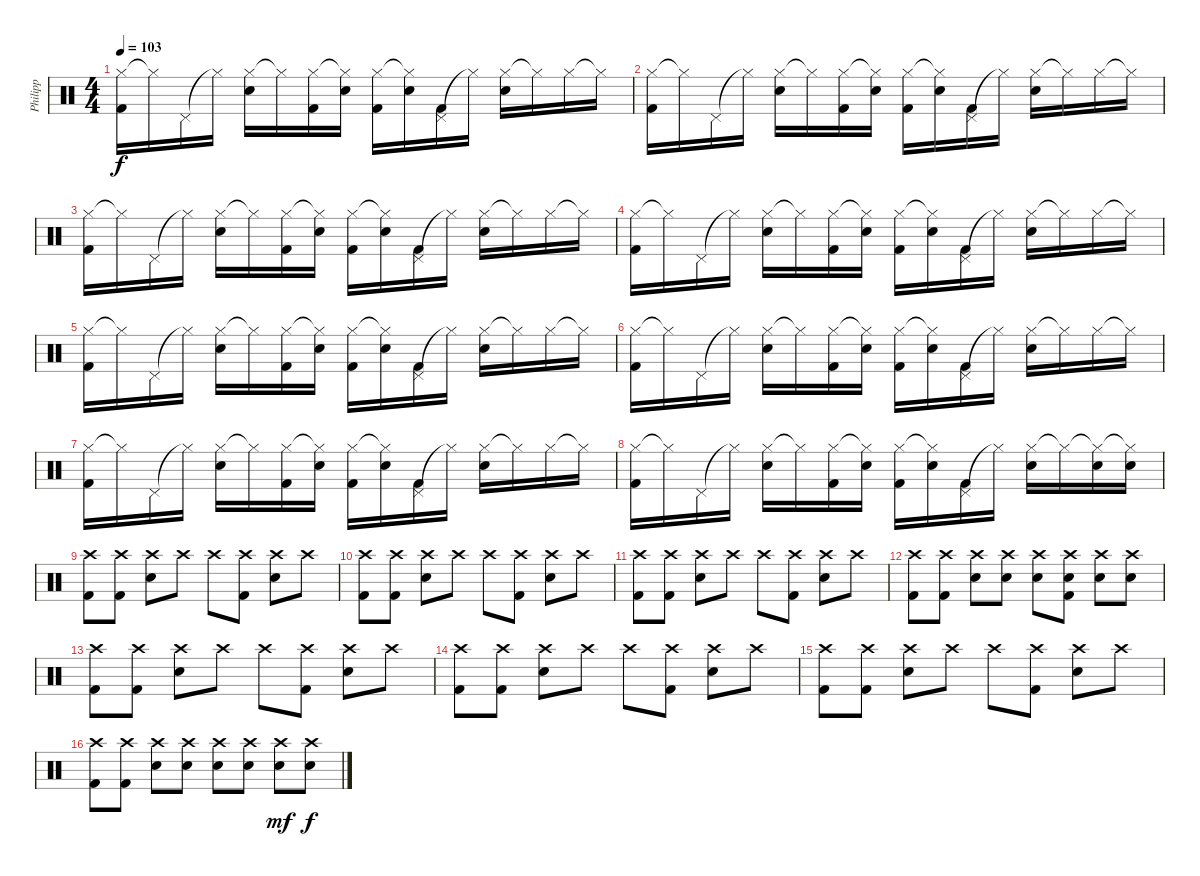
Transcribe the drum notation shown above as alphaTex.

\track ("Philipp" "Philipp") {instrument percussion}
\staff {score}
\articulation defaults
\ts (4 4)
\tempo 103
\clef neutral
\ks c
("Hi-Hat (closed)" "Kick (hit) 2").16{dy f} "Hi-Hat (closed)"{t}.16 "Pedal Hi-Hat (hit)".16 "Hi-Hat (closed)"{t}.16 ("Hi-Hat (closed)" "Electric Snare (hit)").16 "Hi-Hat (closed)"{t}.16 ("Hi-Hat (closed)" "Kick (hit) 2").16 ("Hi-Hat (closed)"{t} "Electric Snare (hit)").16 ("Hi-Hat (closed)" "Kick (hit) 2").16 ("Hi-Hat (closed)"{t} "Electric Snare (hit)").16 ("Pedal Hi-Hat (hit)" "Kick (hit) 2").16 "Hi-Hat (closed)"{t}.16 ("Hi-Hat (closed)" "Electric Snare (hit)").16 "Hi-Hat (closed)"{t}.16 "Hi-Hat (closed)".16 "Hi-Hat (closed)"{t}.16 |
("Hi-Hat (closed)" "Kick (hit) 2").16 "Hi-Hat (closed)"{t}.16 "Pedal Hi-Hat (hit)".16 "Hi-Hat (closed)"{t}.16 ("Hi-Hat (closed)" "Electric Snare (hit)").16 "Hi-Hat (closed)"{t}.16 ("Hi-Hat (closed)" "Kick (hit) 2").16 ("Hi-Hat (closed)"{t} "Electric Snare (hit)").16 ("Hi-Hat (closed)" "Kick (hit) 2").16 ("Hi-Hat (closed)"{t} "Electric Snare (hit)").16 ("Pedal Hi-Hat (hit)" "Kick (hit) 2").16 "Hi-Hat (closed)"{t}.16 ("Hi-Hat (closed)" "Electric Snare (hit)").16 "Hi-Hat (closed)"{t}.16 "Hi-Hat (closed)".16 "Hi-Hat (closed)"{t}.16 |
("Hi-Hat (closed)" "Kick (hit) 2").16 "Hi-Hat (closed)"{t}.16 "Pedal Hi-Hat (hit)".16 "Hi-Hat (closed)"{t}.16 ("Hi-Hat (closed)" "Electric Snare (hit)").16 "Hi-Hat (closed)"{t}.16 ("Hi-Hat (closed)" "Kick (hit) 2").16 ("Hi-Hat (closed)"{t} "Electric Snare (hit)").16 ("Hi-Hat (closed)" "Kick (hit) 2").16 ("Hi-Hat (closed)"{t} "Electric Snare (hit)").16 ("Pedal Hi-Hat (hit)" "Kick (hit) 2").16 "Hi-Hat (closed)"{t}.16 ("Hi-Hat (closed)" "Electric Snare (hit)").16 "Hi-Hat (closed)"{t}.16 "Hi-Hat (closed)".16 "Hi-Hat (closed)"{t}.16 |
("Hi-Hat (closed)" "Kick (hit) 2").16 "Hi-Hat (closed)"{t}.16 "Pedal Hi-Hat (hit)".16 "Hi-Hat (closed)"{t}.16 ("Hi-Hat (closed)" "Electric Snare (hit)").16 "Hi-Hat (closed)"{t}.16 ("Hi-Hat (closed)" "Kick (hit) 2").16 ("Hi-Hat (closed)"{t} "Electric Snare (hit)").16 ("Hi-Hat (closed)" "Kick (hit) 2").16 ("Hi-Hat (closed)"{t} "Electric Snare (hit)").16 ("Pedal Hi-Hat (hit)" "Kick (hit) 2").16 "Hi-Hat (closed)"{t}.16 ("Hi-Hat (closed)" "Electric Snare (hit)").16 "Hi-Hat (closed)"{t}.16 "Hi-Hat (closed)".16 "Hi-Hat (closed)"{t}.16 |
("Hi-Hat (closed)" "Kick (hit) 2").16 "Hi-Hat (closed)"{t}.16 "Pedal Hi-Hat (hit)".16 "Hi-Hat (closed)"{t}.16 ("Hi-Hat (closed)" "Electric Snare (hit)").16 "Hi-Hat (closed)"{t}.16 ("Hi-Hat (closed)" "Kick (hit) 2").16 ("Hi-Hat (closed)"{t} "Electric Snare (hit)").16 ("Hi-Hat (closed)" "Kick (hit) 2").16 ("Hi-Hat (closed)"{t} "Electric Snare (hit)").16 ("Pedal Hi-Hat (hit)" "Kick (hit) 2").16 "Hi-Hat (closed)"{t}.16 ("Hi-Hat (closed)" "Electric Snare (hit)").16 "Hi-Hat (closed)"{t}.16 "Hi-Hat (closed)".16 "Hi-Hat (closed)"{t}.16 |
("Hi-Hat (closed)" "Kick (hit) 2").16 "Hi-Hat (closed)"{t}.16 "Pedal Hi-Hat (hit)".16 "Hi-Hat (closed)"{t}.16 ("Hi-Hat (closed)" "Electric Snare (hit)").16 "Hi-Hat (closed)"{t}.16 ("Hi-Hat (closed)" "Kick (hit) 2").16 ("Hi-Hat (closed)"{t} "Electric Snare (hit)").16 ("Hi-Hat (closed)" "Kick (hit) 2").16 ("Hi-Hat (closed)"{t} "Electric Snare (hit)").16 ("Pedal Hi-Hat (hit)" "Kick (hit) 2").16 "Hi-Hat (closed)"{t}.16 ("Hi-Hat (closed)" "Electric Snare (hit)").16 "Hi-Hat (closed)"{t}.16 "Hi-Hat (closed)".16 "Hi-Hat (closed)"{t}.16 |
("Hi-Hat (closed)" "Kick (hit) 2").16 "Hi-Hat (closed)"{t}.16 "Pedal Hi-Hat (hit)".16 "Hi-Hat (closed)"{t}.16 ("Hi-Hat (closed)" "Electric Snare (hit)").16 "Hi-Hat (closed)"{t}.16 ("Hi-Hat (closed)" "Kick (hit) 2").16 ("Hi-Hat (closed)"{t} "Electric Snare (hit)").16 ("Hi-Hat (closed)" "Kick (hit) 2").16 ("Hi-Hat (closed)"{t} "Electric Snare (hit)").16 ("Pedal Hi-Hat (hit)" "Kick (hit) 2").16 "Hi-Hat (closed)"{t}.16 ("Hi-Hat (closed)" "Electric Snare (hit)").16 "Hi-Hat (closed)"{t}.16 "Hi-Hat (closed)".16 "Hi-Hat (closed)"{t}.16 |
("Hi-Hat (closed)" "Kick (hit) 2").16 "Hi-Hat (closed)"{t}.16 "Pedal Hi-Hat (hit)".16 "Hi-Hat (closed)"{t}.16 ("Hi-Hat (closed)" "Electric Snare (hit)").16 "Hi-Hat (closed)"{t}.16 ("Hi-Hat (closed)" "Kick (hit) 2").16 ("Hi-Hat (closed)"{t} "Electric Snare (hit)").16 ("Hi-Hat (closed)" "Kick (hit) 2").16 ("Hi-Hat (closed)"{t} "Electric Snare (hit)").16 ("Pedal Hi-Hat (hit)" "Kick (hit) 2").16 "Hi-Hat (closed)"{t}.16 ("Hi-Hat (closed)" "Electric Snare (hit)").16 "Hi-Hat (closed)"{t}.16 ("Hi-Hat (closed)"{t} "Electric Snare (hit)").16 ("Hi-Hat (closed)"{t} "Electric Snare (hit)").16 |
("Crash high (hit)" "Kick (hit) 2").8 ("Crash high (hit)" "Kick (hit) 2").8 ("Crash high (hit)" "Electric Snare (hit)").8 "Crash high (hit)".8 "Crash high (hit)".8 ("Crash high (hit)" "Kick (hit) 2").8 ("Crash high (hit)" "Electric Snare (hit)").8 "Crash high (hit)".8 |
("Crash high (hit)" "Kick (hit) 2").8 ("Crash high (hit)" "Kick (hit) 2").8 ("Crash high (hit)" "Electric Snare (hit)").8 "Crash high (hit)".8 "Crash high (hit)".8 ("Crash high (hit)" "Kick (hit) 2").8 ("Crash high (hit)" "Electric Snare (hit)").8 "Crash high (hit)".8 |
("Crash high (hit)" "Kick (hit) 2").8 ("Crash high (hit)" "Kick (hit) 2").8 ("Crash high (hit)" "Electric Snare (hit)").8 "Crash high (hit)".8 "Crash high (hit)".8 ("Crash high (hit)" "Kick (hit) 2").8 ("Crash high (hit)" "Electric Snare (hit)").8 "Crash high (hit)".8 |
("Crash high (hit)" "Kick (hit) 2").8 ("Crash high (hit)" "Kick (hit) 2").8 ("Crash high (hit)" "Electric Snare (hit)").8 ("Crash high (hit)" "Electric Snare (hit)").8 ("Crash high (hit)" "Electric Snare (hit)").8 ("Crash high (hit)" "Electric Snare (hit)" "Kick (hit) 2").8 ("Crash high (hit)" "Electric Snare (hit)").8 ("Crash high (hit)" "Electric Snare (hit)").8 |
("Crash high (hit)" "Kick (hit) 2").8 ("Crash high (hit)" "Kick (hit) 2").8 ("Crash high (hit)" "Electric Snare (hit)").8 "Crash high (hit)".8 "Crash high (hit)".8 ("Crash high (hit)" "Kick (hit) 2").8 ("Crash high (hit)" "Electric Snare (hit)").8 "Crash high (hit)".8 |
("Crash high (hit)" "Kick (hit) 2").8 ("Crash high (hit)" "Kick (hit) 2").8 ("Crash high (hit)" "Electric Snare (hit)").8 "Crash high (hit)".8 "Crash high (hit)".8 ("Crash high (hit)" "Kick (hit) 2").8 ("Crash high (hit)" "Electric Snare (hit)").8 "Crash high (hit)".8 |
("Crash high (hit)" "Kick (hit) 2").8 ("Crash high (hit)" "Kick (hit) 2").8 ("Crash high (hit)" "Electric Snare (hit)").8 "Crash high (hit)".8 "Crash high (hit)".8 ("Crash high (hit)" "Kick (hit) 2").8 ("Crash high (hit)" "Electric Snare (hit)").8 "Crash high (hit)".8 |
("Crash high (hit)" "Kick (hit) 2").8 ("Crash high (hit)" "Kick (hit) 2").8 ("Crash high (hit)" "Electric Snare (hit)").8 ("Crash high (hit)" "Electric Snare (hit)").8 ("Crash high (hit)" "Electric Snare (hit)").8 ("Crash high (hit)" "Electric Snare (hit)").8 ("Crash high (hit)" "Electric Snare (hit)").8{dy mf} ("Crash high (hit)" "Electric Snare (hit)").8{dy f}
